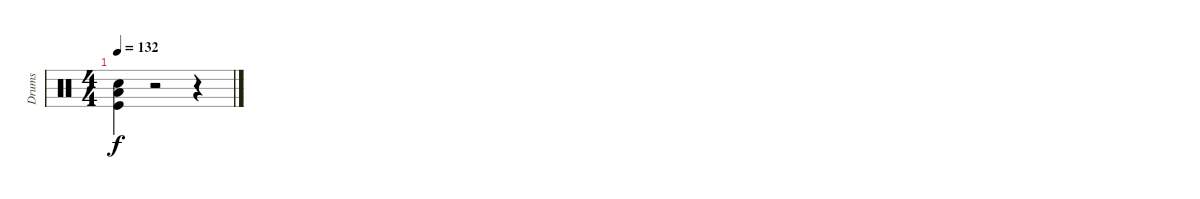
\track ("Drums" "Drums") {instrument percussion}
\staff {score}
\articulation defaults
\ts (4 4)
\tempo 132
\clef neutral
\ks c
("Low Floor Tom (hit)" "Kick (hit)" "Snare (hit) 2").4{dy f} r.2 r.4
